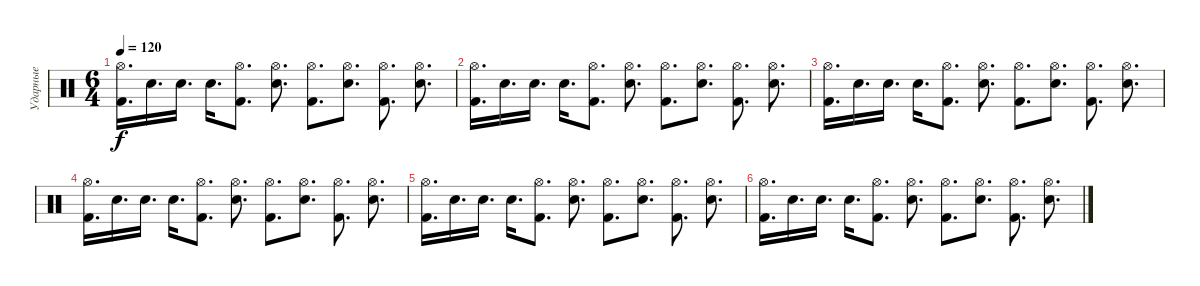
\track ("Ударные" "Ударные") {instrument percussion}
\staff {score}
\articulation defaults
\ts (6 4)
\tempo 120
\clef neutral
\ks c
("Hi-Hat (open)" "Kick (hit) 2").16{d dy f} "Electric Snare (hit)".16{d} "Electric Snare (hit)".16{d} "Electric Snare (hit)".16{d} ("Hi-Hat (open)" "Kick (hit) 2").8{d} ("Electric Snare (hit)" "Hi-Hat (open)").8{d} ("Hi-Hat (open)" "Kick (hit) 2").8{d} ("Electric Snare (hit)" "Hi-Hat (open)").8{d} ("Hi-Hat (open)" "Kick (hit) 2").8{d} ("Electric Snare (hit)" "Hi-Hat (open)").8{d} |
("Hi-Hat (open)" "Kick (hit) 2").16{d} "Electric Snare (hit)".16{d} "Electric Snare (hit)".16{d} "Electric Snare (hit)".16{d} ("Hi-Hat (open)" "Kick (hit) 2").8{d} ("Electric Snare (hit)" "Hi-Hat (open)").8{d} ("Hi-Hat (open)" "Kick (hit) 2").8{d} ("Electric Snare (hit)" "Hi-Hat (open)").8{d} ("Hi-Hat (open)" "Kick (hit) 2").8{d} ("Electric Snare (hit)" "Hi-Hat (open)").8{d} |
("Hi-Hat (open)" "Kick (hit) 2").16{d} "Electric Snare (hit)".16{d} "Electric Snare (hit)".16{d} "Electric Snare (hit)".16{d} ("Hi-Hat (open)" "Kick (hit) 2").8{d} ("Electric Snare (hit)" "Hi-Hat (open)").8{d} ("Hi-Hat (open)" "Kick (hit) 2").8{d} ("Electric Snare (hit)" "Hi-Hat (open)").8{d} ("Hi-Hat (open)" "Kick (hit) 2").8{d} ("Electric Snare (hit)" "Hi-Hat (open)").8{d} |
("Hi-Hat (open)" "Kick (hit) 2").16{d} "Electric Snare (hit)".16{d} "Electric Snare (hit)".16{d} "Electric Snare (hit)".16{d} ("Hi-Hat (open)" "Kick (hit) 2").8{d} ("Electric Snare (hit)" "Hi-Hat (open)").8{d} ("Hi-Hat (open)" "Kick (hit) 2").8{d} ("Electric Snare (hit)" "Hi-Hat (open)").8{d} ("Hi-Hat (open)" "Kick (hit) 2").8{d} ("Electric Snare (hit)" "Hi-Hat (open)").8{d} |
("Hi-Hat (open)" "Kick (hit) 2").16{d} "Electric Snare (hit)".16{d} "Electric Snare (hit)".16{d} "Electric Snare (hit)".16{d} ("Hi-Hat (open)" "Kick (hit) 2").8{d} ("Electric Snare (hit)" "Hi-Hat (open)").8{d} ("Hi-Hat (open)" "Kick (hit) 2").8{d} ("Electric Snare (hit)" "Hi-Hat (open)").8{d} ("Hi-Hat (open)" "Kick (hit) 2").8{d} ("Electric Snare (hit)" "Hi-Hat (open)").8{d} |
("Hi-Hat (open)" "Kick (hit) 2").16{d} "Electric Snare (hit)".16{d} "Electric Snare (hit)".16{d} "Electric Snare (hit)".16{d} ("Hi-Hat (open)" "Kick (hit) 2").8{d} ("Electric Snare (hit)" "Hi-Hat (open)").8{d} ("Hi-Hat (open)" "Kick (hit) 2").8{d} ("Electric Snare (hit)" "Hi-Hat (open)").8{d} ("Hi-Hat (open)" "Kick (hit) 2").8{d} ("Electric Snare (hit)" "Hi-Hat (open)").8{d}
